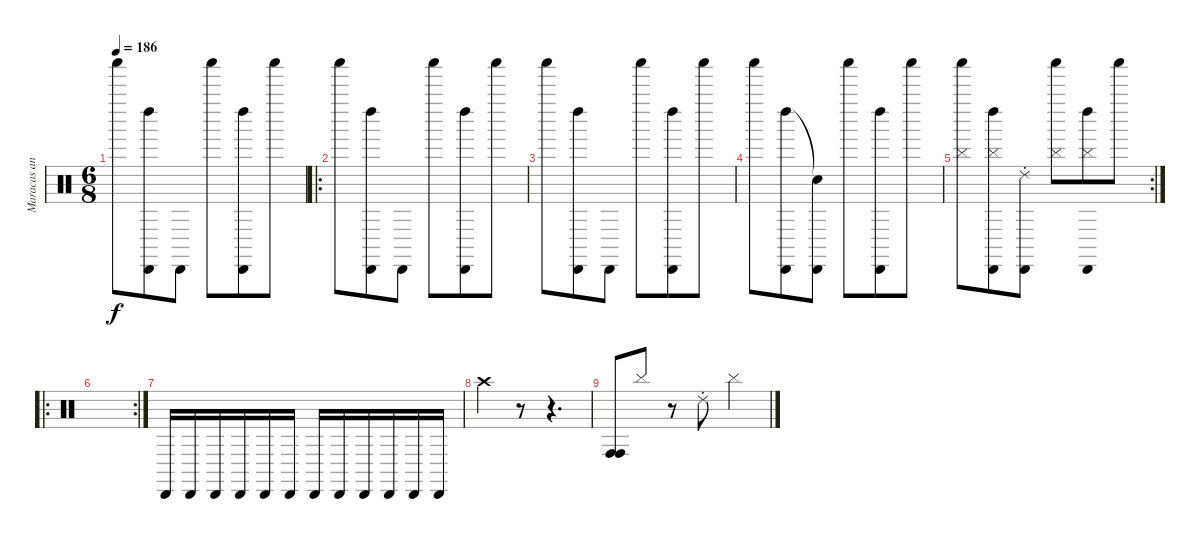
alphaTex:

\track ("Maracas and xtras" "Maracas an") {instrument percussion}
\staff {score}
\articulation defaults
\ts (6 8)
\tempo 186
\clef neutral
\ks c "Shaker (hit)".8{dy f}
("Left Maraca (hit)" "Cabasa (hit)").8 "Cabasa (hit)".8 "Shaker (hit)".8 ("Left Maraca (hit)" "Cabasa (hit)").8 "Shaker (hit)".8 |
\ro "Shaker (hit)".8
("Left Maraca (hit)" "Cabasa (hit)").8 "Cabasa (hit)".8 "Shaker (hit)".8 ("Left Maraca (hit)" "Cabasa (hit)").8 "Shaker (hit)".8 |
"Shaker (hit)".8 ("Left Maraca (hit)" "Cabasa (hit)").8 "Cabasa (hit)".8 "Shaker (hit)".8 ("Left Maraca (hit)" "Cabasa (hit)").8 "Shaker (hit)".8 |
"Shaker (hit)".8 ("Left Maraca (hit)" "Cabasa (hit)").8 ("Snare (hit)"{t} "Cabasa (hit)").8 "Shaker (hit)".8 ("Left Maraca (hit)" "Cabasa (hit)").8 "Shaker (hit)".8 |
\rc 2
("Shaker (hit)" "Cymbal (hit)").8 ("Left Maraca (hit)" "Cymbal (hit)" "Cabasa (hit)").8 ("Ride (choke) 2" "Cabasa (hit)").8 ("Shaker (hit)" "Cymbal (hit)").8 ("Left Maraca (hit)" "Cymbal (hit)" "Cabasa (hit)").8 "Shaker (hit)".8 |
\ro
\rc 2
|
"Cabasa (hit)".16 "Cabasa (hit)".16 "Cabasa (hit)".16 "Cabasa (hit)".16 "Cabasa (hit)".16 "Cabasa (hit)".16 "Cabasa (hit)".16 "Cabasa (hit)".16 "Cabasa (hit)".16 "Cabasa (hit)".16 "Cabasa (hit)".16 "Cabasa (hit)".16 |
"Crash high (hit)".4 r.8 r.4{d} |
("Conga high (hit)" "Conga high (hit)").8 "Cymbal (hit)".8 r.8 "Ride (choke) 2".8 "Cymbal (hit)".4
